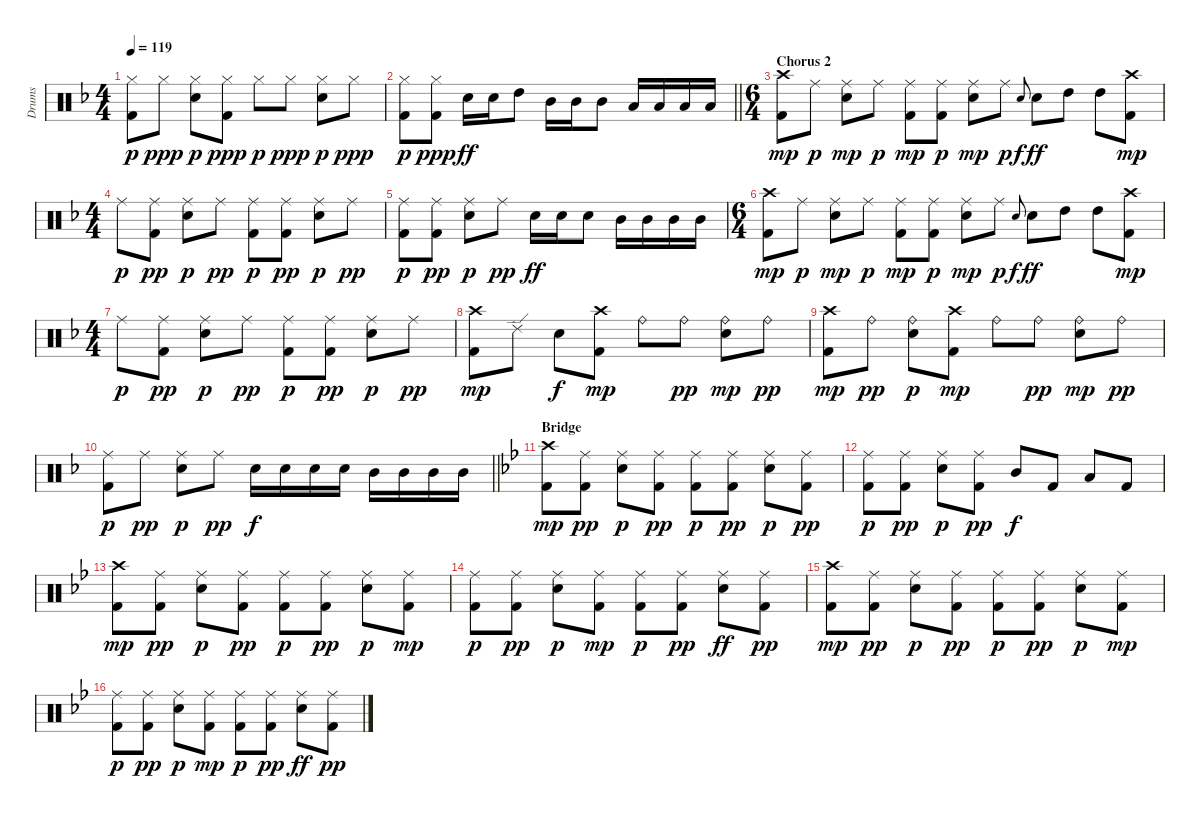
\track ("Drums" "Drums") {instrument percussion}
\staff {score}
\articulation defaults
\ts (4 4)
\tempo 119
\clef neutral
\ks f
("Hi-Hat (closed)" "Kick (hit) 2").8{dy p} "Hi-Hat (closed)".8{dy ppp} ("Hi-Hat (closed)" "Electric Snare (hit)").8{dy p} ("Hi-Hat (closed)" "Kick (hit) 2").8{dy ppp} "Hi-Hat (closed)".8{dy p} "Hi-Hat (closed)".8{dy ppp} ("Hi-Hat (closed)" "Electric Snare (hit)").8{dy p} "Hi-Hat (closed)".8{dy ppp} |
\barLineRight lightlight
("Hi-Hat (closed)" "Kick (hit) 2").8{dy p} ("Hi-Hat (closed)" "Kick (hit) 2").8{dy ppp} "Electric Snare (hit)".16{dy ff} "Electric Snare (hit)".16 "High Tom (hit)".8 "Mid Tom (hit)".16 "Mid Tom (hit)".16 "Mid Tom (hit)".8 "Low Tom (hit)".16 "Low Tom (hit)".16 "Low Tom (hit)".16 "Low Tom (hit)".16 |
\ts (6 4)
\section ("" "Chorus 2")
("Kick (hit) 2" "Crash high (hit)").8{dy mp} "Ride (middle)".8{dy p} ("Ride (middle)" "Electric Snare (hit)").8{dy mp} "Ride (middle)".8{dy p} ("Ride (middle)" "Kick (hit) 2").8{dy mp} ("Ride (middle)" "Kick (hit) 2").8{dy p} ("Ride (middle)" "Electric Snare (hit)").8{dy mp} "Ride (middle)".8{dy p} "Electric Snare (hit)".8{gr onbeat dy f} "Electric Snare (hit)".8{dy ff} "High Tom (hit)".8 "High Tom (hit)".8 ("Kick (hit) 2" "Crash high (hit)").8{dy mp} |
\ts (4 4)
"Ride (middle)".8{dy p} ("Ride (middle)" "Kick (hit) 2").8{dy pp} ("Ride (middle)" "Electric Snare (hit)").8{dy p} "Ride (middle)".8{dy pp} ("Ride (middle)" "Kick (hit) 2").8{dy p} ("Ride (middle)" "Kick (hit) 2").8{dy pp} ("Ride (middle)" "Electric Snare (hit)").8{dy p} "Ride (middle)".8{dy pp} |
("Ride (middle)" "Kick (hit) 2").8{dy p} ("Ride (middle)" "Kick (hit) 2").8{dy pp} ("Ride (middle)" "Electric Snare (hit)").8{dy p} "Ride (middle)".8{dy pp} "Electric Snare (hit)".16{dy ff} "Electric Snare (hit)".16 "Electric Snare (hit)".8 "Mid Tom (hit)".16 "Mid Tom (hit)".16 "Mid Tom (hit)".16 "Mid Tom (hit)".16 |
\ts (6 4)
("Kick (hit) 2" "Crash high (hit)").8{dy mp} "Ride (middle)".8{dy p} ("Ride (middle)" "Electric Snare (hit)").8{dy mp} "Ride (middle)".8{dy p} ("Ride (middle)" "Kick (hit) 2").8{dy mp} ("Ride (middle)" "Kick (hit) 2").8{dy p} ("Ride (middle)" "Electric Snare (hit)").8{dy mp} "Ride (middle)".8{dy p} "Electric Snare (hit)".8{gr onbeat dy f} "Electric Snare (hit)".8{dy ff} "High Tom (hit)".8 "High Tom (hit)".8 ("Kick (hit) 2" "Crash high (hit)").8{dy mp} |
\ts (4 4)
"Ride (middle)".8{dy p} ("Ride (middle)" "Kick (hit) 2").8{dy pp} ("Ride (middle)" "Electric Snare (hit)").8{dy p} "Ride (middle)".8{dy pp} ("Ride (middle)" "Kick (hit) 2").8{dy p} ("Ride (middle)" "Kick (hit) 2").8{dy pp} ("Ride (middle)" "Electric Snare (hit)").8{dy p} "Ride (middle)".8{dy pp} |
("Crash high (hit)" "Kick (hit) 2").8{dy mp} "Ride (edge) 2".8 "Electric Snare (hit)".8{dy f} ("Kick (hit) 2" "Crash high (hit)").8{dy mp} "Ride (bell)".8 "Ride (bell)".8{dy pp} ("Ride (bell)" "Electric Snare (hit)").8{dy mp} "Ride (bell)".8{dy pp} |
("Crash high (hit)" "Kick (hit) 2").8{dy mp} "Ride (bell)".8{dy pp} ("Electric Snare (hit)" "Ride (bell)").8{dy p} ("Kick (hit) 2" "Crash high (hit)").8{dy mp} "Ride (bell)".8 "Ride (bell)".8{dy pp} ("Ride (bell)" "Electric Snare (hit)").8{dy mp} "Ride (bell)".8{dy pp} |
\barLineRight lightlight
("Ride (middle)" "Kick (hit) 2").8{dy p} "Ride (middle)".8{dy pp} ("Ride (middle)" "Electric Snare (hit)").8{dy p} "Ride (middle)".8{dy pp} "Electric Snare (hit)".16{dy f} "Electric Snare (hit)".16 "Electric Snare (hit)".16 "Electric Snare (hit)".16 "Mid Tom (hit)".16 "Mid Tom (hit)".16 "Mid Tom (hit)".16 "Mid Tom (hit)".16 |
\section ("" "Bridge")
\ks bb
("Crash high (hit)" "Kick (hit) 2").8{dy mp} ("Ride (middle)" "Kick (hit) 2").8{dy pp} ("Ride (middle)" "Electric Snare (hit)").8{dy p} ("Ride (middle)" "Kick (hit) 2").8{dy pp} ("Ride (middle)" "Kick (hit) 2").8{dy p} ("Ride (middle)" "Kick (hit) 2").8{dy pp} ("Ride (middle)" "Electric Snare (hit)").8{dy p} ("Ride (middle)" "Kick (hit) 2").8{dy pp} |
("Ride (middle)" "Kick (hit) 2").8{dy p} ("Ride (middle)" "Kick (hit) 2").8{dy pp} ("Ride (middle)" "Electric Snare (hit)").8{dy p} ("Ride (middle)" "Kick (hit) 2").8{dy pp} "Mid Tom (hit)".8{dy f} "Kick (hit) 2".8 "Low Tom (hit)".8 "Kick (hit) 2".8 |
("Crash high (hit)" "Kick (hit) 2").8{dy mp} ("Ride (middle)" "Kick (hit) 2").8{dy pp} ("Ride (middle)" "Electric Snare (hit)").8{dy p} ("Ride (middle)" "Kick (hit) 2").8{dy pp} ("Ride (middle)" "Kick (hit) 2").8{dy p} ("Ride (middle)" "Kick (hit) 2").8{dy pp} ("Ride (middle)" "Electric Snare (hit)").8{dy p} ("Ride (middle)" "Kick (hit) 2").8{dy mp} |
("Ride (middle)" "Kick (hit) 2").8{dy p} ("Ride (middle)" "Kick (hit) 2").8{dy pp} ("Ride (middle)" "Electric Snare (hit)").8{dy p} ("Ride (middle)" "Kick (hit) 2").8{dy mp} ("Ride (middle)" "Kick (hit) 2").8{dy p} ("Ride (middle)" "Kick (hit) 2").8{dy pp} ("Ride (middle)" "Electric Snare (hit)").8{dy ff} ("Ride (middle)" "Kick (hit) 2").8{dy pp} |
("Crash high (hit)" "Kick (hit) 2").8{dy mp} ("Ride (middle)" "Kick (hit) 2").8{dy pp} ("Ride (middle)" "Electric Snare (hit)").8{dy p} ("Ride (middle)" "Kick (hit) 2").8{dy pp} ("Ride (middle)" "Kick (hit) 2").8{dy p} ("Ride (middle)" "Kick (hit) 2").8{dy pp} ("Ride (middle)" "Electric Snare (hit)").8{dy p} ("Ride (middle)" "Kick (hit) 2").8{dy mp} |
("Ride (middle)" "Kick (hit) 2").8{dy p} ("Ride (middle)" "Kick (hit) 2").8{dy pp} ("Ride (middle)" "Electric Snare (hit)").8{dy p} ("Ride (middle)" "Kick (hit) 2").8{dy mp} ("Ride (middle)" "Kick (hit) 2").8{dy p} ("Ride (middle)" "Kick (hit) 2").8{dy pp} ("Ride (middle)" "Electric Snare (hit)").8{dy ff} ("Ride (middle)" "Kick (hit) 2").8{dy pp}
